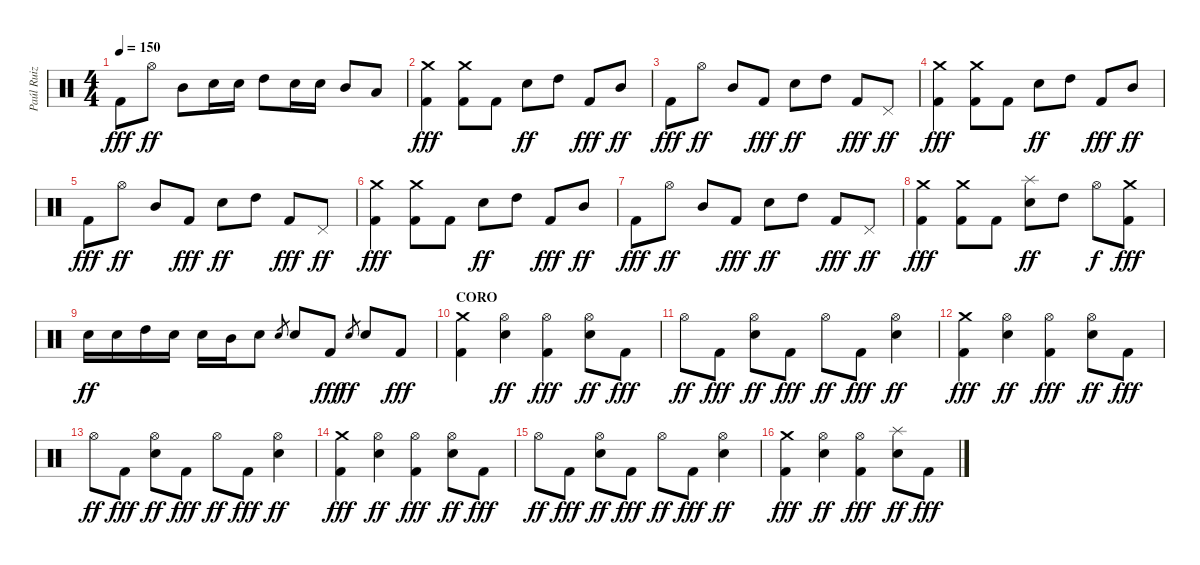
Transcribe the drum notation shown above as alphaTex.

\track ("Paúl Ruiz" "Paúl Ruiz") {instrument percussion}
\staff {score}
\articulation defaults
\ts (4 4)
\tempo 150
\clef neutral
\ks c "Kick (hit) 2".8{dy fff} "Hi-Hat (open)".8{dy ff} "Mid Tom (hit)".8 "Snare (hit) 2".16 "Snare (hit) 2".16 "High Tom (hit)".8 "Snare (hit) 2".16 "Snare (hit) 2".16 "Mid Tom (hit)".8 "Low Tom (hit)".8
|
("Crash medium (hit)" "Kick (hit) 2").4{dy fff} ("Crash medium (hit)" "Kick (hit) 2").8 "Kick (hit) 2".8 "Snare (hit) 2".8{dy ff} "High Tom (hit)".8 "Kick (hit) 2".8{dy fff} "Mid Tom (hit)".8{dy ff} |
"Kick (hit) 2".8{dy fff} "Hi-Hat (open)".8{dy ff} "Mid Tom (hit)".8 "Kick (hit) 2".8{dy fff} "Snare (hit) 2".8{dy ff} "High Tom (hit)".8 "Kick (hit) 2".8{dy fff} "Pedal Hi-Hat (hit)".8{dy ff} |
("Crash medium (hit)" "Kick (hit) 2").4{dy fff} ("Crash medium (hit)" "Kick (hit) 2").8 "Kick (hit) 2".8 "Snare (hit) 2".8{dy ff} "High Tom (hit)".8 "Kick (hit) 2".8{dy fff} "Mid Tom (hit)".8{dy ff} |
"Kick (hit) 2".8{dy fff} "Hi-Hat (open)".8{dy ff} "Mid Tom (hit)".8 "Kick (hit) 2".8{dy fff} "Snare (hit) 2".8{dy ff} "High Tom (hit)".8 "Kick (hit) 2".8{dy fff} "Pedal Hi-Hat (hit)".8{dy ff} |
("Crash medium (hit)" "Kick (hit) 2").4{dy fff} ("Crash medium (hit)" "Kick (hit) 2").8 "Kick (hit) 2".8 "Snare (hit) 2".8{dy ff} "High Tom (hit)".8 "Kick (hit) 2".8{dy fff} "Mid Tom (hit)".8{dy ff} |
"Kick (hit) 2".8{dy fff} "Hi-Hat (open)".8{dy ff} "Mid Tom (hit)".8 "Kick (hit) 2".8{dy fff} "Snare (hit) 2".8{dy ff} "High Tom (hit)".8 "Kick (hit) 2".8{dy fff} "Pedal Hi-Hat (hit)".8{dy ff} |
("Crash medium (hit)" "Kick (hit) 2").4{dy fff} ("Crash medium (hit)" "Kick (hit) 2").8 "Kick (hit) 2".8 ("Splash (hit)" "Snare (hit) 2").8{dy ff} "High Tom (hit)".8 "Hi-Hat (open)".8{dy f} ("Crash medium (hit)" "Kick (hit) 2").8{dy fff} |
"Snare (hit) 2".16{dy ff} "Snare (hit) 2".16 "High Tom (hit)".16 "Snare (hit) 2".16 "Snare (hit) 2".16 "Mid Tom (hit)".16 "Snare (hit) 2".8 "Snare (hit) 2".8{gr} "Snare (hit) 2".8 "Kick (hit) 2".8{dy fff} "Snare (hit) 2".8{gr dy ff} "Snare (hit) 2".8 "Kick (hit) 2".8{dy fff} |
\section ("" "CORO")
("Crash medium (hit)" "Kick (hit) 2").4 ("Hi-Hat (open)" "Snare (hit) 2").4{dy ff} ("Hi-Hat (open)" "Kick (hit) 2").4{dy fff} ("Hi-Hat (open)" "Snare (hit) 2").8{dy ff} "Kick (hit) 2".8{dy fff} |
"Hi-Hat (open)".8{dy ff} "Kick (hit) 2".8{dy fff} ("Hi-Hat (open)" "Snare (hit) 2").8{dy ff} "Kick (hit) 2".8{dy fff} "Hi-Hat (open)".8{dy ff} "Kick (hit) 2".8{dy fff} ("Hi-Hat (open)" "Snare (hit) 2").4{dy ff} |
("Crash medium (hit)" "Kick (hit) 2").4{dy fff} ("Hi-Hat (open)" "Snare (hit) 2").4{dy ff} ("Hi-Hat (open)" "Kick (hit) 2").4{dy fff} ("Hi-Hat (open)" "Snare (hit) 2").8{dy ff} "Kick (hit) 2".8{dy fff} |
"Hi-Hat (open)".8{dy ff} "Kick (hit) 2".8{dy fff} ("Hi-Hat (open)" "Snare (hit) 2").8{dy ff} "Kick (hit) 2".8{dy fff} "Hi-Hat (open)".8{dy ff} "Kick (hit) 2".8{dy fff} ("Hi-Hat (open)" "Snare (hit) 2").4{dy ff} |
("Crash medium (hit)" "Kick (hit) 2").4{dy fff} ("Hi-Hat (open)" "Snare (hit) 2").4{dy ff} ("Hi-Hat (open)" "Kick (hit) 2").4{dy fff} ("Hi-Hat (open)" "Snare (hit) 2").8{dy ff} "Kick (hit) 2".8{dy fff} |
"Hi-Hat (open)".8{dy ff} "Kick (hit) 2".8{dy fff} ("Hi-Hat (open)" "Snare (hit) 2").8{dy ff} "Kick (hit) 2".8{dy fff} "Hi-Hat (open)".8{dy ff} "Kick (hit) 2".8{dy fff} ("Hi-Hat (open)" "Snare (hit) 2").4{dy ff} |
("Crash medium (hit)" "Kick (hit) 2").4{dy fff} ("Hi-Hat (open)" "Snare (hit) 2").4{dy ff} ("Hi-Hat (open)" "Kick (hit) 2").4{dy fff} ("Splash (hit)" "Snare (hit) 2").8{dy ff} "Kick (hit) 2".8{dy fff}
